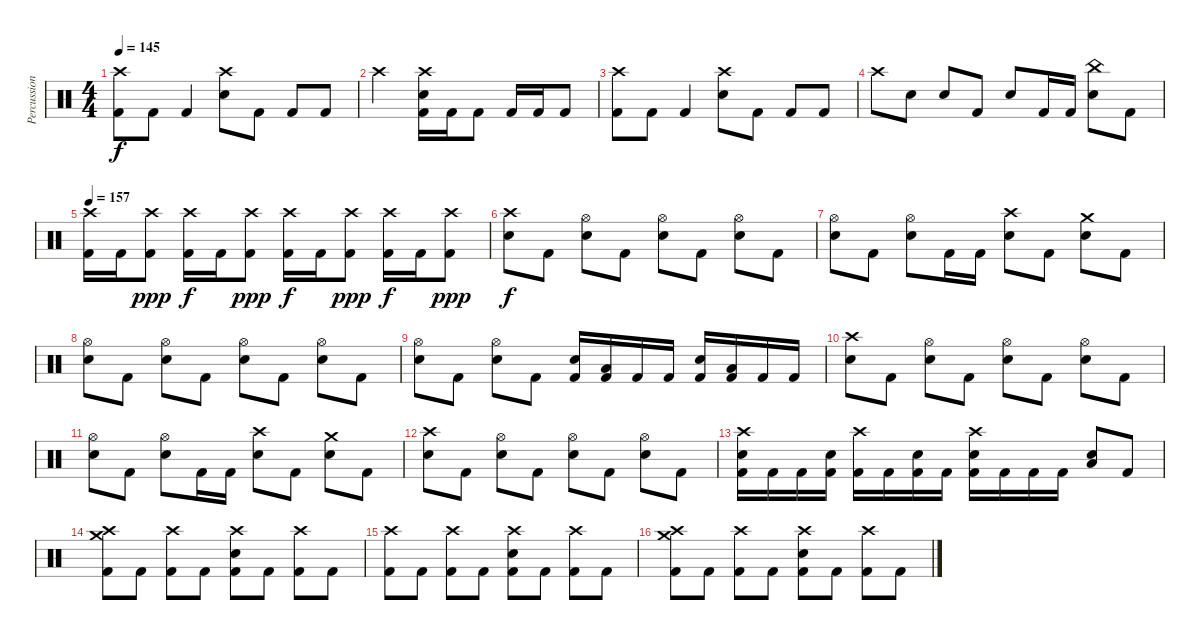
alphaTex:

\track ("Percussion" "Percussion") {instrument percussion}
\staff {score}
\articulation defaults
\ts (4 4)
\tempo 145
\clef neutral
\ks c
("Crash high (hit)" "Kick (hit) 2").8{dy f} "Kick (hit) 2".8 "Kick (hit) 2".4 ("Crash high (hit)" "Electric Snare (hit)").8 "Kick (hit) 2".8 "Kick (hit) 2".8 "Kick (hit) 2".8 |
"Crash high (hit)".2 ("Crash high (hit)" "Electric Snare (hit)" "Kick (hit) 2").16 "Kick (hit) 2".16 "Kick (hit) 2".8 "Kick (hit) 2".16 "Kick (hit) 2".16 "Kick (hit) 2".8 |
("Crash high (hit)" "Kick (hit) 2").8 "Kick (hit) 2".8 "Kick (hit) 2".4 ("Crash high (hit)" "Electric Snare (hit)").8 "Kick (hit) 2".8 "Kick (hit) 2".8 "Kick (hit) 2".8 |
"Crash high (hit)".8 "Electric Snare (hit)".8 "Electric Snare (hit)".8 "Kick (hit) 2".8 "Electric Snare (hit)".8 "Kick (hit) 2".16 "Kick (hit) 2".16 ("China (hit)" "Electric Snare (hit)").8 "Kick (hit) 2".8 |
\tempo 157
("Crash high (hit)" "Kick (hit) 2").16 "Kick (hit) 2".16 ("Crash high (hit)" "Kick (hit) 2").8{dy ppp} ("Crash high (hit)" "Kick (hit) 2").16{dy f} "Kick (hit) 2".16 ("Crash high (hit)" "Kick (hit) 2").8{dy ppp} ("Crash high (hit)" "Kick (hit) 2").16{dy f} "Kick (hit) 2".16 ("Crash high (hit)" "Kick (hit) 2").8{dy ppp} ("Crash high (hit)" "Kick (hit) 2").16{dy f} "Kick (hit) 2".16 ("Crash high (hit)" "Kick (hit) 2").8{dy ppp} |
("Crash high (hit)" "Electric Snare (hit)").8{dy f} "Kick (hit) 2".8 ("Hi-Hat (open)" "Electric Snare (hit)").8 "Kick (hit) 2".8 ("Hi-Hat (open)" "Electric Snare (hit)").8 "Kick (hit) 2".8 ("Hi-Hat (open)" "Electric Snare (hit)").8 "Kick (hit) 2".8 |
("Hi-Hat (open)" "Electric Snare (hit)").8 "Kick (hit) 2".8 ("Hi-Hat (open)" "Electric Snare (hit)").8 "Kick (hit) 2".16 "Kick (hit) 2".16 ("Crash high (hit)" "Electric Snare (hit)").8 "Kick (hit) 2".8 ("Crash medium (hit)" "Electric Snare (hit)").8 "Kick (hit) 2".8 |
("Hi-Hat (open)" "Electric Snare (hit)").8 "Kick (hit) 2".8 ("Hi-Hat (open)" "Electric Snare (hit)").8 "Kick (hit) 2".8 ("Hi-Hat (open)" "Electric Snare (hit)").8 "Kick (hit) 2".8 ("Hi-Hat (open)" "Electric Snare (hit)").8 "Kick (hit) 2".8 |
("Hi-Hat (open)" "Electric Snare (hit)").8 "Kick (hit) 2".8 ("Hi-Hat (open)" "Electric Snare (hit)").8 "Kick (hit) 2".8 ("Electric Snare (hit)" "Kick (hit) 2").16 ("Low Tom (hit)" "Kick (hit) 2").16 "Kick (hit) 2".16 "Kick (hit) 2".16 ("Electric Snare (hit)" "Kick (hit) 2").16 ("Low Tom (hit)" "Kick (hit) 2").16 "Kick (hit) 2".16 "Kick (hit) 2".16 |
("Crash high (hit)" "Electric Snare (hit)").8 "Kick (hit) 2".8 ("Hi-Hat (open)" "Electric Snare (hit)").8 "Kick (hit) 2".8 ("Hi-Hat (open)" "Electric Snare (hit)").8 "Kick (hit) 2".8 ("Hi-Hat (open)" "Electric Snare (hit)").8 "Kick (hit) 2".8 |
("Hi-Hat (open)" "Electric Snare (hit)").8 "Kick (hit) 2".8 ("Hi-Hat (open)" "Electric Snare (hit)").8 "Kick (hit) 2".16 "Kick (hit) 2".16 ("Crash high (hit)" "Electric Snare (hit)").8 "Kick (hit) 2".8 ("Crash medium (hit)" "Electric Snare (hit)").8 "Kick (hit) 2".8 |
("Crash high (hit)" "Electric Snare (hit)").8 "Kick (hit) 2".8 ("Hi-Hat (open)" "Electric Snare (hit)").8 "Kick (hit) 2".8 ("Hi-Hat (open)" "Electric Snare (hit)").8 "Kick (hit) 2".8 ("Hi-Hat (open)" "Electric Snare (hit)").8 "Kick (hit) 2".8 |
("Crash high (hit)" "Electric Snare (hit)" "Kick (hit) 2").16 "Kick (hit) 2".16 "Kick (hit) 2".16 ("Electric Snare (hit)" "Kick (hit) 2").16 ("Crash high (hit)" "Kick (hit) 2").16 "Kick (hit) 2".16 ("Electric Snare (hit)" "Kick (hit) 2").16 "Kick (hit) 2".16 ("Crash high (hit)" "Electric Snare (hit)" "Kick (hit) 2").16 "Kick (hit) 2".16 "Kick (hit) 2".16 "Kick (hit) 2".16 ("Low Floor Tom (hit)" "Electric Snare (hit)").8 "Kick (hit) 2".8 |
("Crash high (hit)" "Crash medium (hit)" "Kick (hit) 2").8 "Kick (hit) 2".8 ("Crash high (hit)" "Kick (hit) 2").8 "Kick (hit) 2".8 ("Crash high (hit)" "Electric Snare (hit)" "Kick (hit) 2").8 "Kick (hit) 2".8 ("Crash high (hit)" "Kick (hit) 2").8 "Kick (hit) 2".8 |
("Crash high (hit)" "Kick (hit) 2").8 "Kick (hit) 2".8 ("Crash high (hit)" "Kick (hit) 2").8 "Kick (hit) 2".8 ("Crash high (hit)" "Electric Snare (hit)" "Kick (hit) 2").8 "Kick (hit) 2".8 ("Crash high (hit)" "Kick (hit) 2").8 "Kick (hit) 2".8 |
("Crash high (hit)" "Crash medium (hit)" "Kick (hit) 2").8 "Kick (hit) 2".8 ("Crash high (hit)" "Kick (hit) 2").8 "Kick (hit) 2".8 ("Crash high (hit)" "Electric Snare (hit)" "Kick (hit) 2").8 "Kick (hit) 2".8 ("Crash high (hit)" "Kick (hit) 2").8 "Kick (hit) 2".8
